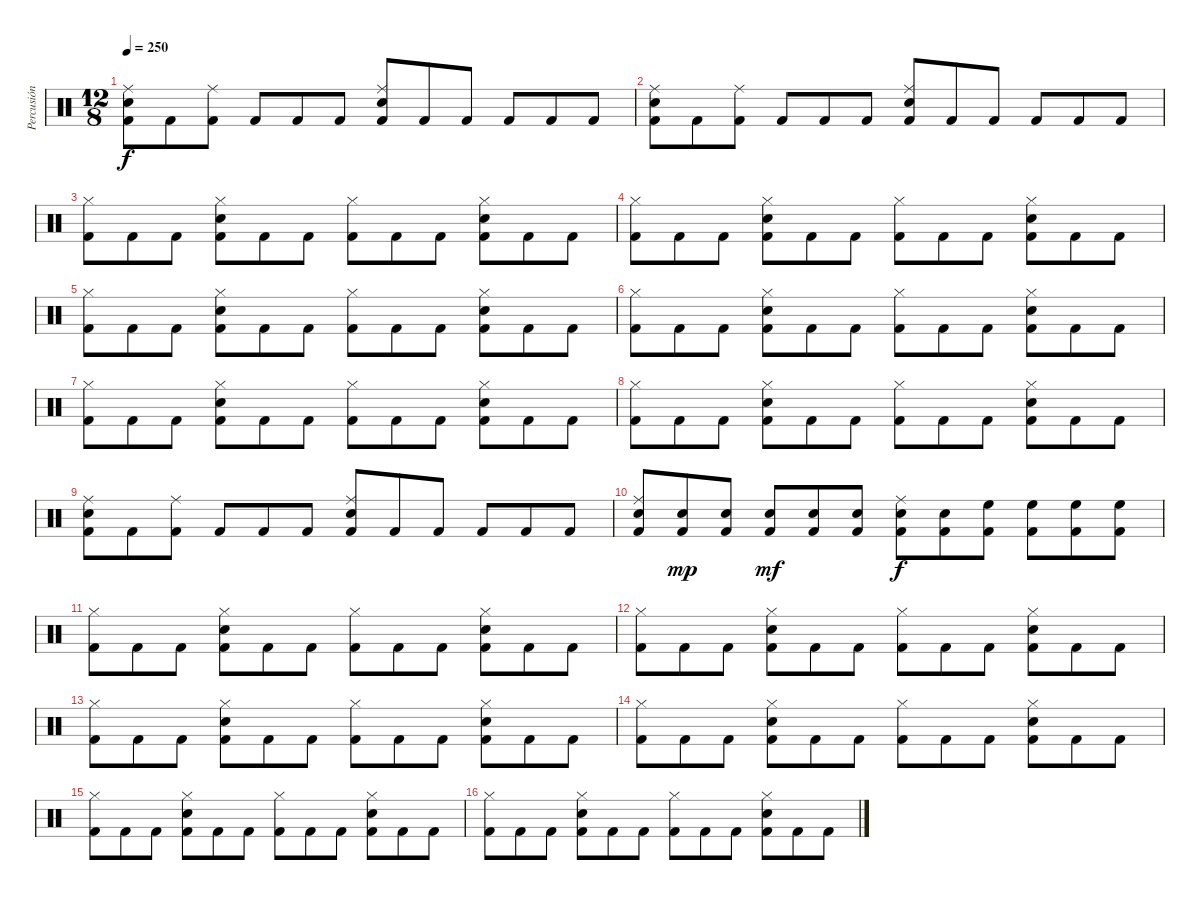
\track ("Percusión" "Percusión") {instrument percussion}
\staff {score}
\articulation defaults
\ts (12 8)
\tempo 250
\clef neutral
\ks c
("Kick (hit) 2" "Ride (middle)" "Snare (hit) 2").8{dy f} "Kick (hit) 2".8 ("Kick (hit) 2" "Ride (middle)").8 "Kick (hit) 2".8 "Kick (hit) 2".8 "Kick (hit) 2".8 ("Kick (hit) 2" "Ride (middle)" "Snare (hit) 2").8 "Kick (hit) 2".8 "Kick (hit) 2".8 "Kick (hit) 2".8 "Kick (hit) 2".8 "Kick (hit) 2".8 |
("Kick (hit) 2" "Ride (middle)" "Snare (hit) 2").8 "Kick (hit) 2".8 ("Kick (hit) 2" "Ride (middle)").8 "Kick (hit) 2".8 "Kick (hit) 2".8 "Kick (hit) 2".8 ("Kick (hit) 2" "Ride (middle)" "Snare (hit) 2").8 "Kick (hit) 2".8 "Kick (hit) 2".8 "Kick (hit) 2".8 "Kick (hit) 2".8 "Kick (hit) 2".8 |
("Kick (hit) 2" "Hi-Hat (closed)").8 "Kick (hit) 2".8 "Kick (hit) 2".8 ("Kick (hit) 2" "Hi-Hat (closed)" "Snare (hit) 2").8 "Kick (hit) 2".8 "Kick (hit) 2".8 ("Kick (hit) 2" "Hi-Hat (closed)").8 "Kick (hit) 2".8 "Kick (hit) 2".8 ("Kick (hit) 2" "Hi-Hat (closed)" "Snare (hit) 2").8 "Kick (hit) 2".8 "Kick (hit) 2".8 |
("Kick (hit) 2" "Hi-Hat (closed)").8 "Kick (hit) 2".8 "Kick (hit) 2".8 ("Kick (hit) 2" "Hi-Hat (closed)" "Snare (hit) 2").8 "Kick (hit) 2".8 "Kick (hit) 2".8 ("Kick (hit) 2" "Hi-Hat (closed)").8 "Kick (hit) 2".8 "Kick (hit) 2".8 ("Kick (hit) 2" "Hi-Hat (closed)" "Snare (hit) 2").8 "Kick (hit) 2".8 "Kick (hit) 2".8 |
("Kick (hit) 2" "Hi-Hat (closed)").8 "Kick (hit) 2".8 "Kick (hit) 2".8 ("Kick (hit) 2" "Hi-Hat (closed)" "Snare (hit) 2").8 "Kick (hit) 2".8 "Kick (hit) 2".8 ("Kick (hit) 2" "Hi-Hat (closed)").8 "Kick (hit) 2".8 "Kick (hit) 2".8 ("Kick (hit) 2" "Hi-Hat (closed)" "Snare (hit) 2").8 "Kick (hit) 2".8 "Kick (hit) 2".8 |
("Kick (hit) 2" "Hi-Hat (closed)").8 "Kick (hit) 2".8 "Kick (hit) 2".8 ("Kick (hit) 2" "Hi-Hat (closed)" "Snare (hit) 2").8 "Kick (hit) 2".8 "Kick (hit) 2".8 ("Kick (hit) 2" "Hi-Hat (closed)").8 "Kick (hit) 2".8 "Kick (hit) 2".8 ("Kick (hit) 2" "Hi-Hat (closed)" "Snare (hit) 2").8 "Kick (hit) 2".8 "Kick (hit) 2".8 |
("Kick (hit) 2" "Hi-Hat (closed)").8 "Kick (hit) 2".8 "Kick (hit) 2".8 ("Kick (hit) 2" "Hi-Hat (closed)" "Snare (hit) 2").8 "Kick (hit) 2".8 "Kick (hit) 2".8 ("Kick (hit) 2" "Hi-Hat (closed)").8 "Kick (hit) 2".8 "Kick (hit) 2".8 ("Kick (hit) 2" "Hi-Hat (closed)" "Snare (hit) 2").8 "Kick (hit) 2".8 "Kick (hit) 2".8 |
("Kick (hit) 2" "Hi-Hat (closed)").8 "Kick (hit) 2".8 "Kick (hit) 2".8 ("Kick (hit) 2" "Hi-Hat (closed)" "Snare (hit) 2").8 "Kick (hit) 2".8 "Kick (hit) 2".8 ("Kick (hit) 2" "Hi-Hat (closed)").8 "Kick (hit) 2".8 "Kick (hit) 2".8 ("Kick (hit) 2" "Hi-Hat (closed)" "Snare (hit) 2").8 "Kick (hit) 2".8 "Kick (hit) 2".8 |
("Kick (hit) 2" "Ride (middle)" "Snare (hit) 2").8 "Kick (hit) 2".8 ("Kick (hit) 2" "Ride (middle)").8 "Kick (hit) 2".8 "Kick (hit) 2".8 "Kick (hit) 2".8 ("Kick (hit) 2" "Ride (middle)" "Snare (hit) 2").8 "Kick (hit) 2".8 "Kick (hit) 2".8 "Kick (hit) 2".8 "Kick (hit) 2".8 "Kick (hit) 2".8 |
("Kick (hit) 2" "Ride (middle)" "Snare (hit) 2").8 ("Kick (hit) 2" "Snare (hit) 2").8{dy mp} ("Kick (hit) 2" "Snare (hit) 2").8 ("Kick (hit) 2" "Snare (hit) 2").8{dy mf} ("Kick (hit) 2" "Snare (hit) 2").8 ("Kick (hit) 2" "Snare (hit) 2").8 ("Kick (hit) 2" "Ride (middle)" "Snare (hit) 2").8{dy f} ("Kick (hit) 2" "Snare (hit) 2").8 ("Kick (hit) 2" "High Floor Tom (hit)").8 ("Kick (hit) 2" "High Floor Tom (hit)").8 ("Kick (hit) 2" "High Floor Tom (hit)").8 ("Kick (hit) 2" "High Floor Tom (hit)").8 |
("Kick (hit) 2" "Hi-Hat (closed)").8 "Kick (hit) 2".8 "Kick (hit) 2".8 ("Kick (hit) 2" "Hi-Hat (closed)" "Snare (hit) 2").8 "Kick (hit) 2".8 "Kick (hit) 2".8 ("Kick (hit) 2" "Hi-Hat (closed)").8 "Kick (hit) 2".8 "Kick (hit) 2".8 ("Kick (hit) 2" "Hi-Hat (closed)" "Snare (hit) 2").8 "Kick (hit) 2".8 "Kick (hit) 2".8 |
("Kick (hit) 2" "Hi-Hat (closed)").8 "Kick (hit) 2".8 "Kick (hit) 2".8 ("Kick (hit) 2" "Hi-Hat (closed)" "Snare (hit) 2").8 "Kick (hit) 2".8 "Kick (hit) 2".8 ("Kick (hit) 2" "Hi-Hat (closed)").8 "Kick (hit) 2".8 "Kick (hit) 2".8 ("Kick (hit) 2" "Hi-Hat (closed)" "Snare (hit) 2").8 "Kick (hit) 2".8 "Kick (hit) 2".8 |
("Kick (hit) 2" "Hi-Hat (closed)").8 "Kick (hit) 2".8 "Kick (hit) 2".8 ("Kick (hit) 2" "Hi-Hat (closed)" "Snare (hit) 2").8 "Kick (hit) 2".8 "Kick (hit) 2".8 ("Kick (hit) 2" "Hi-Hat (closed)").8 "Kick (hit) 2".8 "Kick (hit) 2".8 ("Kick (hit) 2" "Hi-Hat (closed)" "Snare (hit) 2").8 "Kick (hit) 2".8 "Kick (hit) 2".8 |
("Kick (hit) 2" "Hi-Hat (closed)").8 "Kick (hit) 2".8 "Kick (hit) 2".8 ("Kick (hit) 2" "Hi-Hat (closed)" "Snare (hit) 2").8 "Kick (hit) 2".8 "Kick (hit) 2".8 ("Kick (hit) 2" "Hi-Hat (closed)").8 "Kick (hit) 2".8 "Kick (hit) 2".8 ("Kick (hit) 2" "Hi-Hat (closed)" "Snare (hit) 2").8 "Kick (hit) 2".8 "Kick (hit) 2".8 |
("Kick (hit) 2" "Hi-Hat (closed)").8 "Kick (hit) 2".8 "Kick (hit) 2".8 ("Kick (hit) 2" "Hi-Hat (closed)" "Snare (hit) 2").8 "Kick (hit) 2".8 "Kick (hit) 2".8 ("Kick (hit) 2" "Hi-Hat (closed)").8 "Kick (hit) 2".8 "Kick (hit) 2".8 ("Kick (hit) 2" "Hi-Hat (closed)" "Snare (hit) 2").8 "Kick (hit) 2".8 "Kick (hit) 2".8 |
("Kick (hit) 2" "Hi-Hat (closed)").8 "Kick (hit) 2".8 "Kick (hit) 2".8 ("Kick (hit) 2" "Hi-Hat (closed)" "Snare (hit) 2").8 "Kick (hit) 2".8 "Kick (hit) 2".8 ("Kick (hit) 2" "Hi-Hat (closed)").8 "Kick (hit) 2".8 "Kick (hit) 2".8 ("Kick (hit) 2" "Hi-Hat (closed)" "Snare (hit) 2").8 "Kick (hit) 2".8 "Kick (hit) 2".8
